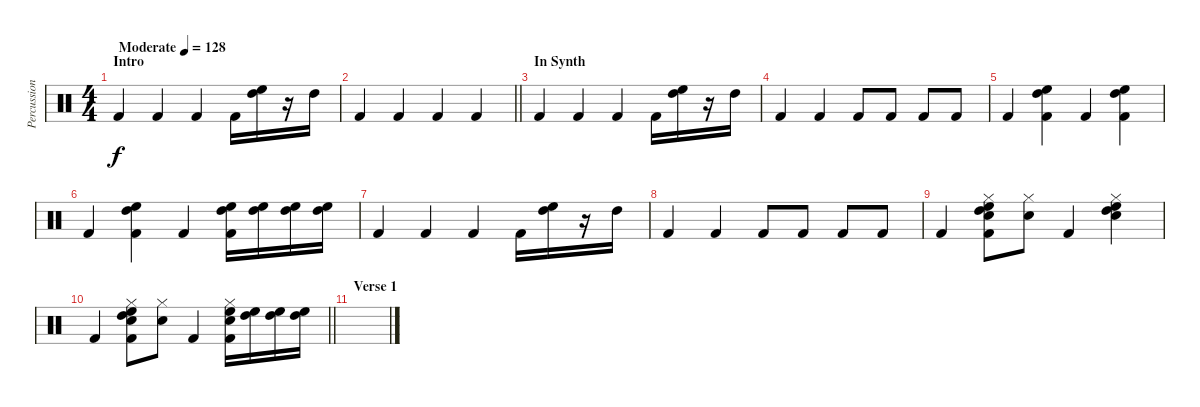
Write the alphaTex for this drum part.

\track ("Percussion" "Percussion") {instrument percussion}
\staff {score}
\articulation defaults
\ts (4 4)
\section ("" "Intro")
\tempo (128 "Moderate")
\clef neutral
\ks c "Kick (hit) 2".4{dy f} "Kick (hit) 2".4 "Kick (hit) 2".4 "Kick (hit) 2".16
("High Tom (hit)" "High Floor Tom (hit)").16 r.16 "High Tom (hit)".16 |
\barLineRight lightlight "Kick (hit) 2".4 "Kick (hit) 2".4 "Kick (hit) 2".4 "Kick (hit) 2".4
|
\section ("" "In Synth")
"Kick (hit) 2".4 "Kick (hit) 2".4 "Kick (hit) 2".4 "Kick (hit) 2".16 ("High Tom (hit)" "High Floor Tom (hit)").16 r.16 "High Tom (hit)".16 |
"Kick (hit) 2".4 "Kick (hit) 2".4 "Kick (hit) 2".8 "Kick (hit) 2".8 "Kick (hit) 2".8 "Kick (hit) 2".8 |
"Kick (hit) 2".4 ("High Tom (hit)" "High Floor Tom (hit)" "Kick (hit) 2").4 "Kick (hit) 2".4 ("High Tom (hit)" "High Floor Tom (hit)" "Kick (hit) 2").4 |
"Kick (hit) 2".4 ("High Tom (hit)" "High Floor Tom (hit)" "Kick (hit) 2").4 "Kick (hit) 2".4 ("High Tom (hit)" "High Floor Tom (hit)" "Kick (hit) 2").16 ("High Tom (hit)" "High Floor Tom (hit)").16 ("High Tom (hit)" "High Floor Tom (hit)").16 ("High Tom (hit)" "High Floor Tom (hit)").16 |
"Kick (hit) 2".4 "Kick (hit) 2".4 "Kick (hit) 2".4 "Kick (hit) 2".16 ("High Tom (hit)" "High Floor Tom (hit)").16 r.16 "High Tom (hit)".16 |
"Kick (hit) 2".4 "Kick (hit) 2".4 "Kick (hit) 2".8 "Kick (hit) 2".8 "Kick (hit) 2".8 "Kick (hit) 2".8 |
"Kick (hit) 2".4 ("High Tom (hit)" "Electric Snare (hit)" "Hi-Hat (closed)" "High Floor Tom (hit)" "Kick (hit) 2").8 ("Electric Snare (hit)" "Hi-Hat (closed)").8 "Kick (hit) 2".4 ("High Tom (hit)" "Electric Snare (hit)" "Hi-Hat (closed)" "High Floor Tom (hit)").4 |
\barLineRight lightlight "Kick (hit) 2".4
("High Tom (hit)" "Electric Snare (hit)" "Hi-Hat (closed)" "High Floor Tom (hit)" "Kick (hit) 2").8 ("Electric Snare (hit)" "Hi-Hat (closed)").8 "Kick (hit) 2".4 ("Electric Snare (hit)" "High Floor Tom (hit)" "Hi-Hat (closed)" "Kick (hit) 2").16 ("High Tom (hit)" "High Floor Tom (hit)").16 ("High Tom (hit)" "High Floor Tom (hit)").16 ("High Tom (hit)" "High Floor Tom (hit)").16 |
\section ("" "Verse 1")
